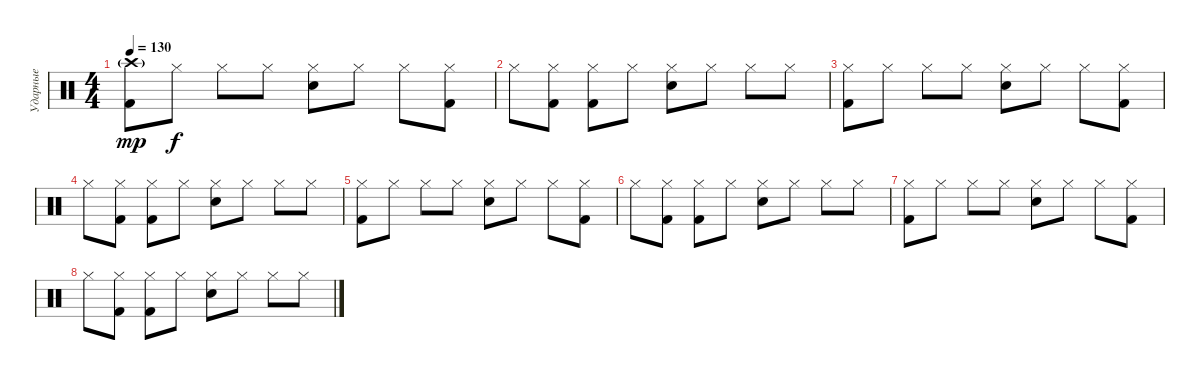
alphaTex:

\track ("Ударные" "Ударные") {instrument percussion}
\staff {score}
\articulation defaults
\ts (4 4)
\tempo 130
\clef neutral
\ks c
("Kick (hit) 2" "Crash high (hit)"{g}).8{dy mp} "Hi-Hat (closed)".8{dy f} "Hi-Hat (closed)".8 "Hi-Hat (closed)".8 ("Snare (hit) 2" "Hi-Hat (closed)").8 "Hi-Hat (closed)".8 "Hi-Hat (closed)".8 ("Kick (hit) 2" "Hi-Hat (closed)").8 |
"Hi-Hat (closed)".8 ("Kick (hit) 2" "Hi-Hat (closed)").8 ("Kick (hit) 2" "Hi-Hat (closed)").8 "Hi-Hat (closed)".8 ("Snare (hit) 2" "Hi-Hat (closed)").8 "Hi-Hat (closed)".8 "Hi-Hat (closed)".8 "Hi-Hat (closed)".8 |
("Kick (hit) 2" "Hi-Hat (closed)").8 "Hi-Hat (closed)".8 "Hi-Hat (closed)".8 "Hi-Hat (closed)".8 ("Snare (hit) 2" "Hi-Hat (closed)").8 "Hi-Hat (closed)".8 "Hi-Hat (closed)".8 ("Kick (hit) 2" "Hi-Hat (closed)").8 |
"Hi-Hat (closed)".8 ("Kick (hit) 2" "Hi-Hat (closed)").8 ("Kick (hit) 2" "Hi-Hat (closed)").8 "Hi-Hat (closed)".8 ("Snare (hit) 2" "Hi-Hat (closed)").8 "Hi-Hat (closed)".8 "Hi-Hat (closed)".8 "Hi-Hat (closed)".8 |
("Kick (hit) 2" "Hi-Hat (closed)").8 "Hi-Hat (closed)".8 "Hi-Hat (closed)".8 "Hi-Hat (closed)".8 ("Snare (hit) 2" "Hi-Hat (closed)").8 "Hi-Hat (closed)".8 "Hi-Hat (closed)".8 ("Kick (hit) 2" "Hi-Hat (closed)").8 |
"Hi-Hat (closed)".8 ("Kick (hit) 2" "Hi-Hat (closed)").8 ("Kick (hit) 2" "Hi-Hat (closed)").8 "Hi-Hat (closed)".8 ("Snare (hit) 2" "Hi-Hat (closed)").8 "Hi-Hat (closed)".8 "Hi-Hat (closed)".8 "Hi-Hat (closed)".8 |
("Kick (hit) 2" "Hi-Hat (closed)").8 "Hi-Hat (closed)".8 "Hi-Hat (closed)".8 "Hi-Hat (closed)".8 ("Snare (hit) 2" "Hi-Hat (closed)").8 "Hi-Hat (closed)".8 "Hi-Hat (closed)".8 ("Kick (hit) 2" "Hi-Hat (closed)").8 |
"Hi-Hat (closed)".8 ("Kick (hit) 2" "Hi-Hat (closed)").8 ("Kick (hit) 2" "Hi-Hat (closed)").8 "Hi-Hat (closed)".8 ("Snare (hit) 2" "Hi-Hat (closed)").8 "Hi-Hat (closed)".8 "Hi-Hat (closed)".8 "Hi-Hat (closed)".8
